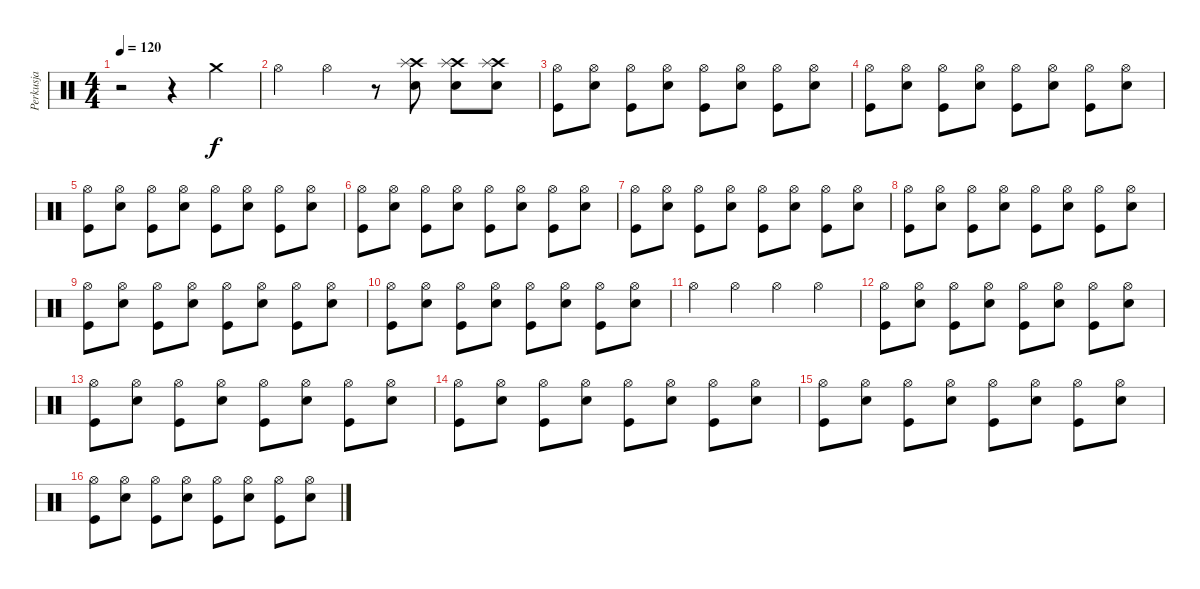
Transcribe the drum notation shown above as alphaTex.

\track ("Perkusja" "Perkusja") {instrument percussion}
\staff {score}
\articulation defaults
\ts (4 4)
\tempo 120
\clef neutral
\ks c
r.2{dy f} r.4 "Crash medium (hit)".4 |
"Hi-Hat (open)".4 "Hi-Hat (open)".4 r.8 ("Snare (hit) 2" "Crash high (hit)" "Splash (hit)").8 ("Snare (hit) 2" "Crash high (hit)" "Splash (hit)").8 ("Snare (hit) 2" "Crash high (hit)" "Splash (hit)").8 |
("Kick (hit)" "Hi-Hat (open)").8 ("Snare (hit) 2" "Hi-Hat (open)").8 ("Kick (hit)" "Hi-Hat (open)").8 ("Snare (hit) 2" "Hi-Hat (open)").8 ("Kick (hit)" "Hi-Hat (open)").8 ("Snare (hit) 2" "Hi-Hat (open)").8 ("Kick (hit)" "Hi-Hat (open)").8 ("Snare (hit) 2" "Hi-Hat (open)").8 |
("Kick (hit)" "Hi-Hat (open)").8 ("Snare (hit) 2" "Hi-Hat (open)").8 ("Kick (hit)" "Hi-Hat (open)").8 ("Snare (hit) 2" "Hi-Hat (open)").8 ("Kick (hit)" "Hi-Hat (open)").8 ("Snare (hit) 2" "Hi-Hat (open)").8 ("Kick (hit)" "Hi-Hat (open)").8 ("Snare (hit) 2" "Hi-Hat (open)").8 |
("Kick (hit)" "Hi-Hat (open)").8 ("Snare (hit) 2" "Hi-Hat (open)").8 ("Kick (hit)" "Hi-Hat (open)").8 ("Snare (hit) 2" "Hi-Hat (open)").8 ("Kick (hit)" "Hi-Hat (open)").8 ("Snare (hit) 2" "Hi-Hat (open)").8 ("Kick (hit)" "Hi-Hat (open)").8 ("Snare (hit) 2" "Hi-Hat (open)").8 |
("Kick (hit)" "Hi-Hat (open)").8 ("Snare (hit) 2" "Hi-Hat (open)").8 ("Kick (hit)" "Hi-Hat (open)").8 ("Snare (hit) 2" "Hi-Hat (open)").8 ("Kick (hit)" "Hi-Hat (open)").8 ("Snare (hit) 2" "Hi-Hat (open)").8 ("Kick (hit)" "Hi-Hat (open)").8 ("Snare (hit) 2" "Hi-Hat (open)").8 |
("Kick (hit)" "Hi-Hat (open)").8 ("Snare (hit) 2" "Hi-Hat (open)").8 ("Kick (hit)" "Hi-Hat (open)").8 ("Snare (hit) 2" "Hi-Hat (open)").8 ("Kick (hit)" "Hi-Hat (open)").8 ("Snare (hit) 2" "Hi-Hat (open)").8 ("Kick (hit)" "Hi-Hat (open)").8 ("Snare (hit) 2" "Hi-Hat (open)").8 |
("Kick (hit)" "Hi-Hat (open)").8 ("Snare (hit) 2" "Hi-Hat (open)").8 ("Kick (hit)" "Hi-Hat (open)").8 ("Snare (hit) 2" "Hi-Hat (open)").8 ("Kick (hit)" "Hi-Hat (open)").8 ("Snare (hit) 2" "Hi-Hat (open)").8 ("Kick (hit)" "Hi-Hat (open)").8 ("Snare (hit) 2" "Hi-Hat (open)").8 |
("Kick (hit)" "Hi-Hat (open)").8 ("Snare (hit) 2" "Hi-Hat (open)").8 ("Kick (hit)" "Hi-Hat (open)").8 ("Snare (hit) 2" "Hi-Hat (open)").8 ("Kick (hit)" "Hi-Hat (open)").8 ("Snare (hit) 2" "Hi-Hat (open)").8 ("Kick (hit)" "Hi-Hat (open)").8 ("Snare (hit) 2" "Hi-Hat (open)").8 |
("Kick (hit)" "Hi-Hat (open)").8 ("Snare (hit) 2" "Hi-Hat (open)").8 ("Kick (hit)" "Hi-Hat (open)").8 ("Snare (hit) 2" "Hi-Hat (open)").8 ("Kick (hit)" "Hi-Hat (open)").8 ("Snare (hit) 2" "Hi-Hat (open)").8 ("Kick (hit)" "Hi-Hat (open)").8 ("Snare (hit) 2" "Hi-Hat (open)").8 |
"Hi-Hat (open)".4 "Hi-Hat (open)".4 "Hi-Hat (open)".4 "Hi-Hat (open)".4 |
("Kick (hit)" "Hi-Hat (open)").8 ("Snare (hit) 2" "Hi-Hat (open)").8 ("Kick (hit)" "Hi-Hat (open)").8 ("Snare (hit) 2" "Hi-Hat (open)").8 ("Kick (hit)" "Hi-Hat (open)").8 ("Snare (hit) 2" "Hi-Hat (open)").8 ("Kick (hit)" "Hi-Hat (open)").8 ("Snare (hit) 2" "Hi-Hat (open)").8 |
("Kick (hit)" "Hi-Hat (open)").8 ("Snare (hit) 2" "Hi-Hat (open)").8 ("Kick (hit)" "Hi-Hat (open)").8 ("Snare (hit) 2" "Hi-Hat (open)").8 ("Kick (hit)" "Hi-Hat (open)").8 ("Snare (hit) 2" "Hi-Hat (open)").8 ("Kick (hit)" "Hi-Hat (open)").8 ("Snare (hit) 2" "Hi-Hat (open)").8 |
("Kick (hit)" "Hi-Hat (open)").8 ("Snare (hit) 2" "Hi-Hat (open)").8 ("Kick (hit)" "Hi-Hat (open)").8 ("Snare (hit) 2" "Hi-Hat (open)").8 ("Kick (hit)" "Hi-Hat (open)").8 ("Snare (hit) 2" "Hi-Hat (open)").8 ("Kick (hit)" "Hi-Hat (open)").8 ("Snare (hit) 2" "Hi-Hat (open)").8 |
("Kick (hit)" "Hi-Hat (open)").8 ("Snare (hit) 2" "Hi-Hat (open)").8 ("Kick (hit)" "Hi-Hat (open)").8 ("Snare (hit) 2" "Hi-Hat (open)").8 ("Kick (hit)" "Hi-Hat (open)").8 ("Snare (hit) 2" "Hi-Hat (open)").8 ("Kick (hit)" "Hi-Hat (open)").8 ("Snare (hit) 2" "Hi-Hat (open)").8 |
("Kick (hit)" "Hi-Hat (open)").8 ("Snare (hit) 2" "Hi-Hat (open)").8 ("Kick (hit)" "Hi-Hat (open)").8 ("Snare (hit) 2" "Hi-Hat (open)").8 ("Kick (hit)" "Hi-Hat (open)").8 ("Snare (hit) 2" "Hi-Hat (open)").8 ("Kick (hit)" "Hi-Hat (open)").8 ("Snare (hit) 2" "Hi-Hat (open)").8
